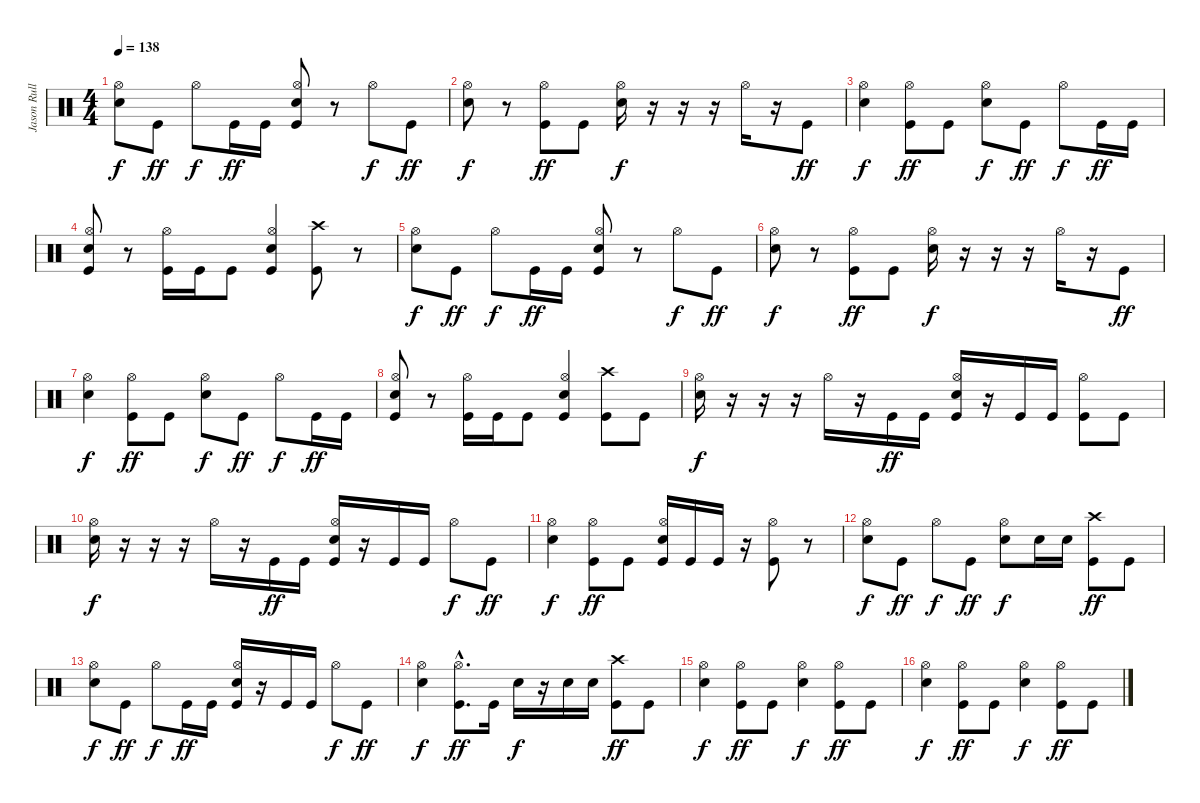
\track ("Jason Rullo" "Jason Rull") {instrument percussion}
\staff {score}
\articulation defaults
\ts (4 4)
\tempo 138
\clef neutral
\ks c
("Snare (hit) 2" "Hi-Hat (open)").8{dy f} "Kick (hit)".8{dy ff} "Hi-Hat (open)".8{dy f} "Kick (hit)".16{dy ff} "Kick (hit)".16 ("Kick (hit)" "Snare (hit) 2" "Hi-Hat (open)").8 r.8 "Hi-Hat (open)".8{dy f} "Kick (hit)".8{dy ff} |
("Snare (hit) 2" "Hi-Hat (open)").8{dy f} r.8 ("Kick (hit)" "Hi-Hat (open)").8{dy ff} "Kick (hit)".8 ("Snare (hit) 2" "Hi-Hat (open)").16{dy f} r.16 r.16 r.16 "Hi-Hat (open)".16 r.16 "Kick (hit)".8{dy ff} |
("Snare (hit) 2" "Hi-Hat (open)").4{dy f} ("Kick (hit)" "Hi-Hat (open)").8{dy ff} "Kick (hit)".8 ("Snare (hit) 2" "Hi-Hat (open)").8{dy f} "Kick (hit)".8{dy ff} "Hi-Hat (open)".8{dy f} "Kick (hit)".16{dy ff} "Kick (hit)".16 |
("Kick (hit)" "Snare (hit) 2" "Hi-Hat (open)").8 r.8 ("Kick (hit)" "Hi-Hat (open)").16 "Kick (hit)".16 "Kick (hit)".8 ("Kick (hit)" "Snare (hit) 2" "Hi-Hat (open)").4 ("Kick (hit)" "Crash high (hit)").8 r.8 |
("Snare (hit) 2" "Hi-Hat (open)").8{dy f} "Kick (hit)".8{dy ff} "Hi-Hat (open)".8{dy f} "Kick (hit)".16{dy ff} "Kick (hit)".16 ("Kick (hit)" "Snare (hit) 2" "Hi-Hat (open)").8 r.8 "Hi-Hat (open)".8{dy f} "Kick (hit)".8{dy ff} |
("Snare (hit) 2" "Hi-Hat (open)").8{dy f} r.8 ("Kick (hit)" "Hi-Hat (open)").8{dy ff} "Kick (hit)".8 ("Snare (hit) 2" "Hi-Hat (open)").16{dy f} r.16 r.16 r.16 "Hi-Hat (open)".16 r.16 "Kick (hit)".8{dy ff} |
("Snare (hit) 2" "Hi-Hat (open)").4{dy f} ("Kick (hit)" "Hi-Hat (open)").8{dy ff} "Kick (hit)".8 ("Snare (hit) 2" "Hi-Hat (open)").8{dy f} "Kick (hit)".8{dy ff} "Hi-Hat (open)".8{dy f} "Kick (hit)".16{dy ff} "Kick (hit)".16 |
("Kick (hit)" "Snare (hit) 2" "Hi-Hat (open)").8 r.8 ("Kick (hit)" "Hi-Hat (open)").16 "Kick (hit)".16 "Kick (hit)".8 ("Kick (hit)" "Snare (hit) 2" "Hi-Hat (open)").4 ("Kick (hit)" "Crash high (hit)").8 "Kick (hit)".8 |
("Snare (hit) 2" "Hi-Hat (open)").16{dy f} r.16 r.16 r.16 "Hi-Hat (open)".16 r.16 "Kick (hit)".16{dy ff} "Kick (hit)".16 ("Kick (hit)" "Snare (hit) 2" "Hi-Hat (open)").16 r.16 "Kick (hit)".16 "Kick (hit)".16 ("Kick (hit)" "Hi-Hat (open)").8 "Kick (hit)".8 |
("Snare (hit) 2" "Hi-Hat (open)").16{dy f} r.16 r.16 r.16 "Hi-Hat (open)".16 r.16 "Kick (hit)".16{dy ff} "Kick (hit)".16 ("Kick (hit)" "Snare (hit) 2" "Hi-Hat (open)").16 r.16 "Kick (hit)".16 "Kick (hit)".16 "Hi-Hat (open)".8{dy f} "Kick (hit)".8{dy ff} |
("Snare (hit) 2" "Hi-Hat (open)").4{dy f} ("Kick (hit)" "Hi-Hat (open)").8{dy ff} "Kick (hit)".8 ("Kick (hit)" "Snare (hit) 2" "Hi-Hat (open)").16 "Kick (hit)".16 "Kick (hit)".16 r.16 ("Kick (hit)" "Hi-Hat (open)").8 r.8 |
("Snare (hit) 2" "Hi-Hat (open)").8{dy f} "Kick (hit)".8{dy ff} "Hi-Hat (open)".8{dy f} "Kick (hit)".8{dy ff} ("Snare (hit) 2" "Hi-Hat (open)").8{dy f} "Snare (hit) 2".16 "Snare (hit) 2".16 ("Kick (hit)" "Crash high (hit)").8{dy ff} "Kick (hit)".8 |
("Snare (hit) 2" "Hi-Hat (open)").8{dy f} "Kick (hit)".8{dy ff} "Hi-Hat (open)".8{dy f} "Kick (hit)".16{dy ff} "Kick (hit)".16 ("Kick (hit)" "Snare (hit) 2" "Hi-Hat (open)").16 r.16 "Kick (hit)".16 "Kick (hit)".16 "Hi-Hat (open)".8{dy f} "Kick (hit)".8{dy ff} |
("Snare (hit) 2" "Hi-Hat (open)").4{dy f} ("Kick (hit)"{hac} "Hi-Hat (open)"{hac}).8{d dy ff} "Kick (hit)".16 "Snare (hit) 2".16{dy f} r.16 "Snare (hit) 2".16 "Snare (hit) 2".16 ("Kick (hit)" "Crash high (hit)").8{dy ff} "Kick (hit)".8 |
("Snare (hit) 2" "Hi-Hat (open)").4{dy f} ("Kick (hit)" "Hi-Hat (open)").8{dy ff} "Kick (hit)".8 ("Snare (hit) 2" "Hi-Hat (open)").4{dy f} ("Kick (hit)" "Hi-Hat (open)").8{dy ff} "Kick (hit)".8 |
("Snare (hit) 2" "Hi-Hat (open)").4{dy f} ("Kick (hit)" "Hi-Hat (open)").8{dy ff} "Kick (hit)".8 ("Snare (hit) 2" "Hi-Hat (open)").4{dy f} ("Kick (hit)" "Hi-Hat (open)").8{dy ff} "Kick (hit)".8
